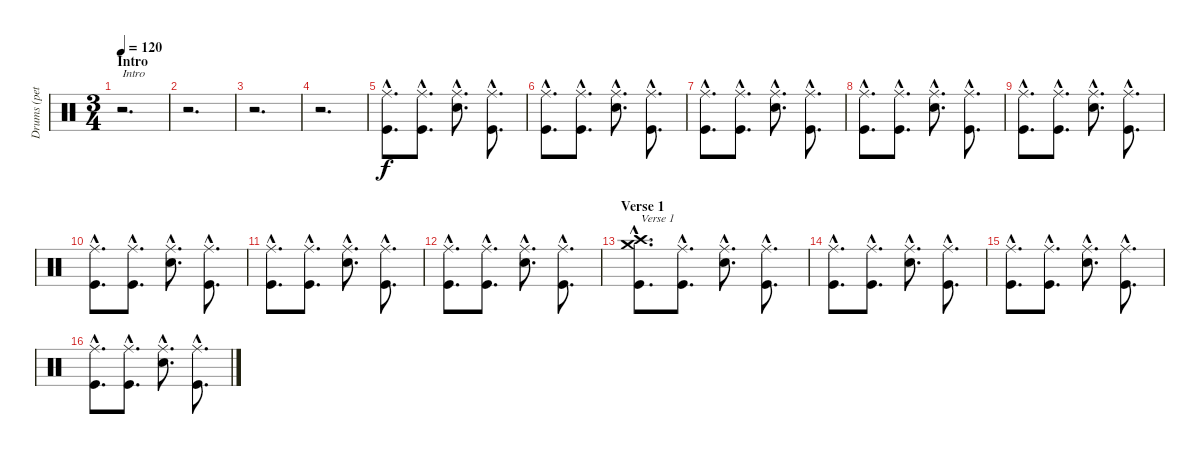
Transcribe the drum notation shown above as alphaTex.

\track ("Drums (pete)" "Drums (pet") {instrument percussion}
\staff {score}
\articulation defaults
\ts (3 4)
\section ("" "Intro")
\tempo 120
\clef neutral
\ks c
r.2{d txt "Intro" dy f} |
r.2{d} |
r.2{d} |
r.2{d} |
("Ride (middle)"{hac} "Kick (hit)"{hac}).8{d} ("Ride (middle)"{hac} "Kick (hit)"{hac}).8{d} ("Ride (middle)"{hac} "Snare (hit) 2"{hac}).8{d} ("Ride (middle)"{hac} "Kick (hit)"{hac}).8{d} |
("Ride (middle)"{hac} "Kick (hit)"{hac}).8{d} ("Ride (middle)"{hac} "Kick (hit)"{hac}).8{d} ("Ride (middle)"{hac} "Snare (hit) 2"{hac}).8{d} ("Ride (middle)"{hac} "Kick (hit)"{hac}).8{d} |
("Ride (middle)"{hac} "Kick (hit)"{hac}).8{d} ("Ride (middle)"{hac} "Kick (hit)"{hac}).8{d} ("Ride (middle)"{hac} "Snare (hit) 2"{hac}).8{d} ("Ride (middle)"{hac} "Kick (hit)"{hac}).8{d} |
("Ride (middle)"{hac} "Kick (hit)"{hac}).8{d} ("Ride (middle)"{hac} "Kick (hit)"{hac}).8{d} ("Ride (middle)"{hac} "Snare (hit) 2"{hac}).8{d} ("Ride (middle)"{hac} "Kick (hit)"{hac}).8{d} |
("Ride (middle)"{hac} "Kick (hit)"{hac}).8{d} ("Ride (middle)"{hac} "Kick (hit)"{hac}).8{d} ("Ride (middle)"{hac} "Snare (hit) 2"{hac}).8{d} ("Ride (middle)"{hac} "Kick (hit)"{hac}).8{d} |
("Ride (middle)"{hac} "Kick (hit)"{hac}).8{d} ("Ride (middle)"{hac} "Kick (hit)"{hac}).8{d} ("Ride (middle)"{hac} "Snare (hit) 2"{hac}).8{d} ("Ride (middle)"{hac} "Kick (hit)"{hac}).8{d} |
("Ride (middle)"{hac} "Kick (hit)"{hac}).8{d} ("Ride (middle)"{hac} "Kick (hit)"{hac}).8{d} ("Ride (middle)"{hac} "Snare (hit) 2"{hac}).8{d} ("Ride (middle)"{hac} "Kick (hit)"{hac}).8{d} |
("Ride (middle)"{hac} "Kick (hit)"{hac}).8{d} ("Ride (middle)"{hac} "Kick (hit)"{hac}).8{d} ("Ride (middle)"{hac} "Snare (hit) 2"{hac}).8{d} ("Ride (middle)"{hac} "Kick (hit)"{hac}).8{d} |
\section ("" "Verse 1")
("Crash medium (hit)"{hac} "Crash high (hit)"{hac} "Kick (hit)"{hac}).8{d txt "Verse 1"} ("Ride (middle)"{hac} "Kick (hit)"{hac}).8{d} ("Ride (middle)"{hac} "Snare (hit) 2"{hac}).8{d} ("Ride (middle)"{hac} "Kick (hit)"{hac}).8{d} |
("Ride (middle)"{hac} "Kick (hit)"{hac}).8{d} ("Ride (middle)"{hac} "Kick (hit)"{hac}).8{d} ("Ride (middle)"{hac} "Snare (hit) 2"{hac}).8{d} ("Ride (middle)"{hac} "Kick (hit)"{hac}).8{d} |
("Ride (middle)"{hac} "Kick (hit)"{hac}).8{d} ("Ride (middle)"{hac} "Kick (hit)"{hac}).8{d} ("Ride (middle)"{hac} "Snare (hit) 2"{hac}).8{d} ("Ride (middle)"{hac} "Kick (hit)"{hac}).8{d} |
("Ride (middle)"{hac} "Kick (hit)"{hac}).8{d} ("Ride (middle)"{hac} "Kick (hit)"{hac}).8{d} ("Ride (middle)"{hac} "Snare (hit) 2"{hac}).8{d} ("Ride (middle)"{hac} "Kick (hit)"{hac}).8{d}
